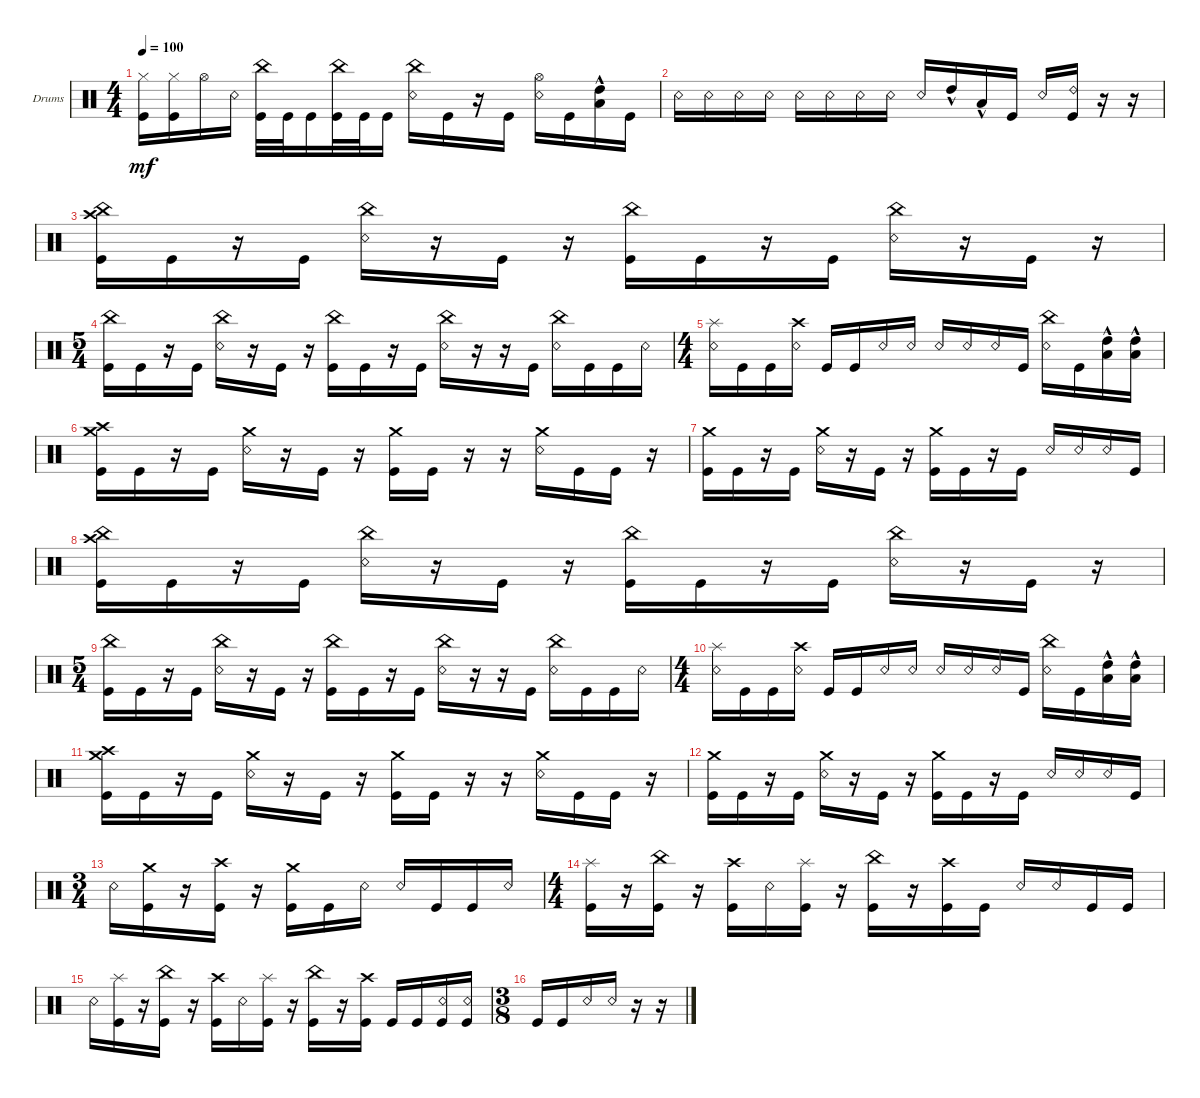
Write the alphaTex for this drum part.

\defaultSystemsLayout 4
\bracketExtendMode groupsimilarinstruments
\firstSystemTrackNameOrientation horizontal
\otherSystemsTrackNameOrientation horizontal
\track ("Drumkit" "Drums") {instrument percussion}
\staff {score}
\articulation defaults
\ts (4 4)
\tempo 100
\clef neutral
\ks c
("Kick (hit)" "Hi-Hat (closed)").16{dy mf} ("Kick (hit)" "Hi-Hat (closed)").16 "Hi-Hat (open)".16 "Snare (rim shot)".16 ("Kick (hit)" "China (hit)").32 "Kick (hit)".32 "Kick (hit)".16 ("Kick (hit)" "China (hit)").32 "Kick (hit)".32 "Kick (hit)".16 ("China (hit)" "Snare (rim shot)").16 "Kick (hit)".16 r.16 "Kick (hit)".16 ("Hi-Hat (open)" "Snare (rim shot)").16 "Kick (hit)".16 ("Low Tom (hit)"{hac} "High Tom (hit)"{hac}).16 "Kick (hit)".16 |
"Snare (rim shot)".16 "Snare (rim shot)".16 "Snare (rim shot)".16 "Snare (rim shot)".16 "Snare (rim shot)".16 "Snare (rim shot)".16 "Snare (rim shot)".16 "Snare (rim shot)".16 "Snare (rim shot)".16 "High Tom (hit)"{hac}.16 "Low Tom (hit)"{hac}.16 "Kick (hit)".16 "Snare (rim shot)".16 ("Kick (hit)" "Ride (bell) 2").16 r.16 r.16 |
("China (hit)" "Kick (hit)" "Crash high (hit)").16 "Kick (hit)".16 r.16 "Kick (hit)".16 ("Snare (rim shot)" "China (hit)").16 r.16 "Kick (hit)".16 r.16 ("Kick (hit)" "China (hit)").16 "Kick (hit)".16 r.16 "Kick (hit)".16 ("Snare (rim shot)" "China (hit)").16 r.16 "Kick (hit)".16 r.16 |
\ts (5 4)
("China (hit)" "Kick (hit)").16 "Kick (hit)".16 r.16 "Kick (hit)".16 ("Snare (rim shot)" "China (hit)").16 r.16 "Kick (hit)".16 r.16 ("Kick (hit)" "China (hit)").16 "Kick (hit)".16 r.16 "Kick (hit)".16 ("Snare (rim shot)" "China (hit)").16 r.16 r.16 "Kick (hit)".16 ("Snare (rim shot)" "China (hit)").16 "Kick (hit)".16 "Kick (hit)".16 "Snare (rim shot)".16 |
\ts (4 4)
("Snare (rim shot)" "Splash (hit)").16 "Kick (hit)".16 "Kick (hit)".16 ("Snare (rim shot)" "Crash high (hit)").16 "Kick (hit)".16 "Kick (hit)".16 "Snare (rim shot)".16 "Snare (rim shot)".16 "Snare (rim shot)".16 "Snare (rim shot)".16 "Snare (rim shot)".16 "Kick (hit)".16 ("Snare (rim shot)" "China (hit)").16 "Kick (hit)".16 ("Low Tom (hit)"{hac} "High Tom (hit)"{hac}).16 ("Low Tom (hit)"{hac} "High Tom (hit)"{hac}).16 |
("Kick (hit)" "Crash high (hit)" "Crash medium (hit)").16 "Kick (hit)".16 r.16 "Kick (hit)".16 ("Snare (rim shot)" "Crash medium (hit)").16 r.16 "Kick (hit)".16 r.16 ("Kick (hit)" "Crash medium (hit)").16 "Kick (hit)".16 r.16 r.16 ("Snare (rim shot)" "Crash medium (hit)").16 "Kick (hit)".16 "Kick (hit)".16 r.16 |
("Kick (hit)" "Crash medium (hit)").16 "Kick (hit)".16 r.16 "Kick (hit)".16 ("Snare (rim shot)" "Crash medium (hit)").16 r.16 "Kick (hit)".16 r.16 ("Kick (hit)" "Crash medium (hit)").16 "Kick (hit)".16 r.16 "Kick (hit)".16 "Snare (rim shot)".16 "Snare (rim shot)".16 "Snare (rim shot)".16 "Kick (hit)".16 |
("China (hit)" "Kick (hit)" "Crash high (hit)").16 "Kick (hit)".16 r.16 "Kick (hit)".16 ("Snare (rim shot)" "China (hit)").16 r.16 "Kick (hit)".16 r.16 ("Kick (hit)" "China (hit)").16 "Kick (hit)".16 r.16 "Kick (hit)".16 ("Snare (rim shot)" "China (hit)").16 r.16 "Kick (hit)".16 r.16 |
\ts (5 4)
("China (hit)" "Kick (hit)").16 "Kick (hit)".16 r.16 "Kick (hit)".16 ("Snare (rim shot)" "China (hit)").16 r.16 "Kick (hit)".16 r.16 ("Kick (hit)" "China (hit)").16 "Kick (hit)".16 r.16 "Kick (hit)".16 ("Snare (rim shot)" "China (hit)").16 r.16 r.16 "Kick (hit)".16 ("Snare (rim shot)" "China (hit)").16 "Kick (hit)".16 "Kick (hit)".16 "Snare (rim shot)".16 |
\ts (4 4)
("Snare (rim shot)" "Splash (hit)").16 "Kick (hit)".16 "Kick (hit)".16 ("Snare (rim shot)" "Crash high (hit)").16 "Kick (hit)".16 "Kick (hit)".16 "Snare (rim shot)".16 "Snare (rim shot)".16 "Snare (rim shot)".16 "Snare (rim shot)".16 "Snare (rim shot)".16 "Kick (hit)".16 ("Snare (rim shot)" "China (hit)").16 "Kick (hit)".16 ("Low Tom (hit)"{hac} "High Tom (hit)"{hac}).16 ("Low Tom (hit)"{hac} "High Tom (hit)"{hac}).16 |
("Kick (hit)" "Crash high (hit)" "Crash medium (hit)").16 "Kick (hit)".16 r.16 "Kick (hit)".16 ("Snare (rim shot)" "Crash medium (hit)").16 r.16 "Kick (hit)".16 r.16 ("Kick (hit)" "Crash medium (hit)").16 "Kick (hit)".16 r.16 r.16 ("Snare (rim shot)" "Crash medium (hit)").16 "Kick (hit)".16 "Kick (hit)".16 r.16 |
("Kick (hit)" "Crash medium (hit)").16 "Kick (hit)".16 r.16 "Kick (hit)".16 ("Snare (rim shot)" "Crash medium (hit)").16 r.16 "Kick (hit)".16 r.16 ("Kick (hit)" "Crash medium (hit)").16 "Kick (hit)".16 r.16 "Kick (hit)".16 "Snare (rim shot)".16 "Snare (rim shot)".16 "Snare (rim shot)".16 "Kick (hit)".16 |
\ts (3 4)
"Snare (rim shot)".16 ("Kick (hit)" "Crash medium (hit)").16 r.16 ("Kick (hit)" "Crash high (hit)").16 r.16 ("Kick (hit)" "Crash medium (hit)").16 "Kick (hit)".16 "Snare (rim shot)".16 "Snare (rim shot)".16 "Kick (hit)".16 "Kick (hit)".16 "Snare (rim shot)".16 |
\ts (4 4)
("Kick (hit)" "Splash (hit)").16 r.16 ("Kick (hit)" "China (hit)").16 r.16 ("Kick (hit)" "Crash high (hit)").16 "Snare (rim shot)".16 ("Kick (hit)" "Splash (hit)").16 r.16 ("Kick (hit)" "China (hit)").16 r.16 ("Kick (hit)" "Crash high (hit)").16 "Kick (hit)".16 "Snare (rim shot)".16 "Snare (rim shot)".16 "Kick (hit)".16 "Kick (hit)".16 |
"Snare (rim shot)".16 ("Kick (hit)" "Splash (hit)").16 r.16 ("Kick (hit)" "China (hit)").16 r.16 ("Kick (hit)" "Crash high (hit)").16 "Snare (rim shot)".16 ("Kick (hit)" "Splash (hit)").16 r.16 ("Kick (hit)" "China (hit)").16 r.16 ("Kick (hit)" "Crash high (hit)").16 "Kick (hit)".16 "Kick (hit)".16 ("Snare (rim shot)" "Kick (hit)").16 ("Snare (rim shot)" "Kick (hit)").16 |
\ts (3 8)
"Kick (hit)".16 "Kick (hit)".16 "Snare (rim shot)".16 "Snare (rim shot)".16 r.16 r.16
